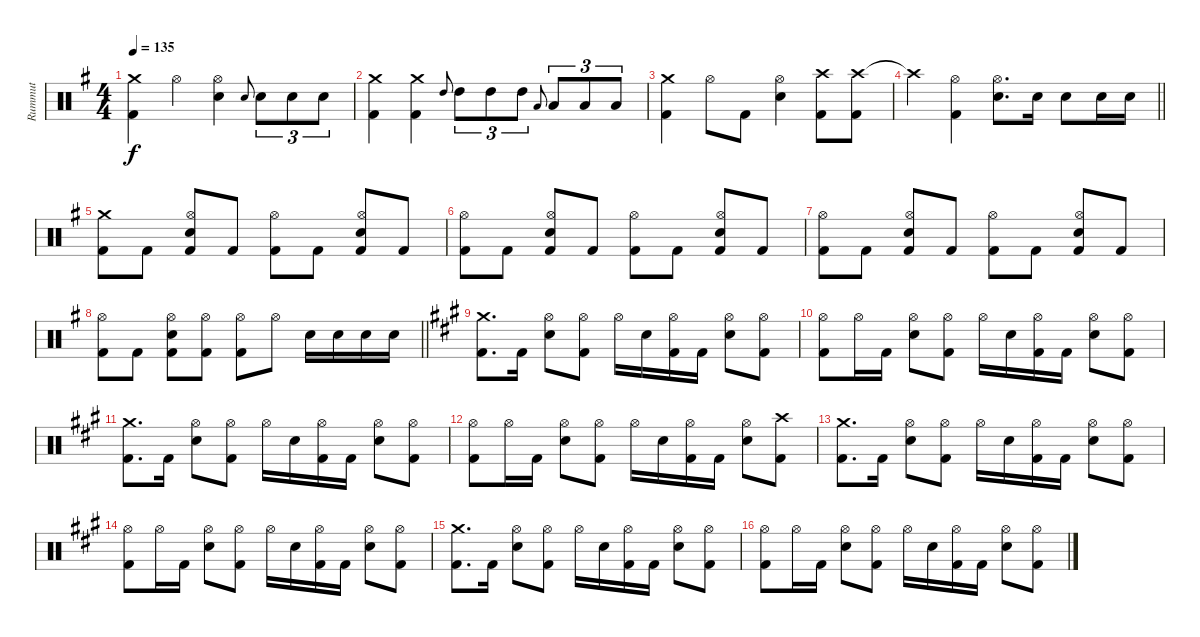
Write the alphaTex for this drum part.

\track ("Rummut" "Rummut") {instrument percussion}
\staff {score}
\articulation defaults
\ts (4 4)
\tempo 135
\clef neutral
\ks g
("Crash medium (hit)" "Kick (hit) 2").4{dy f} "Hi-Hat (open)".4 ("Hi-Hat (open)" "Snare (hit) 2").4 "Snare (hit) 2".8{gr onbeat} "Snare (hit) 2".8{tu (3 2)} "Snare (hit) 2".8{tu (3 2)} "Snare (hit) 2".8{tu (3 2)} |
("Crash medium (hit)" "Kick (hit) 2").4 ("Crash medium (hit)" "Kick (hit) 2").4 "High Tom (hit)".8{gr onbeat} "High Tom (hit)".8{tu (3 2)} "High Tom (hit)".8{tu (3 2)} "High Tom (hit)".8{tu (3 2)} "Low Tom (hit)".8{gr onbeat} "Low Tom (hit)".8{tu (3 2)} "Low Tom (hit)".8{tu (3 2)} "Low Tom (hit)".8{tu (3 2)} |
("Crash medium (hit)" "Kick (hit) 2").4 "Hi-Hat (open)".8 "Kick (hit) 2".8 ("Hi-Hat (open)" "Snare (hit) 2").4 ("Crash high (hit)" "Kick (hit) 2").8 ("Crash high (hit)" "Kick (hit) 2").8 |
\barLineRight lightlight "Crash high (hit)"{t}.4
("Hi-Hat (open)" "Kick (hit) 2").4 ("Hi-Hat (open)" "Snare (hit) 2").8{d} "Snare (hit) 2".16 "Snare (hit) 2".8 "Snare (hit) 2".16 "Snare (hit) 2".16 |
("Crash medium (hit)" "Kick (hit) 2").8 "Kick (hit) 2".8 ("Hi-Hat (open)" "Snare (hit) 2" "Kick (hit) 2").8 "Kick (hit) 2".8 ("Hi-Hat (open)" "Kick (hit) 2").8 "Kick (hit) 2".8 ("Hi-Hat (open)" "Snare (hit) 2" "Kick (hit) 2").8 "Kick (hit) 2".8 |
("Hi-Hat (open)" "Kick (hit) 2").8 "Kick (hit) 2".8 ("Hi-Hat (open)" "Snare (hit) 2" "Kick (hit) 2").8 "Kick (hit) 2".8 ("Hi-Hat (open)" "Kick (hit) 2").8 "Kick (hit) 2".8 ("Hi-Hat (open)" "Snare (hit) 2" "Kick (hit) 2").8 "Kick (hit) 2".8 |
("Hi-Hat (open)" "Kick (hit) 2").8 "Kick (hit) 2".8 ("Hi-Hat (open)" "Snare (hit) 2" "Kick (hit) 2").8 "Kick (hit) 2".8 ("Hi-Hat (open)" "Kick (hit) 2").8 "Kick (hit) 2".8 ("Hi-Hat (open)" "Snare (hit) 2" "Kick (hit) 2").8 "Kick (hit) 2".8 |
\barLineRight lightlight
("Hi-Hat (open)" "Kick (hit) 2").8 "Kick (hit) 2".8 ("Hi-Hat (open)" "Snare (hit) 2" "Kick (hit) 2").8 ("Hi-Hat (open)" "Kick (hit) 2").8 ("Hi-Hat (open)" "Kick (hit) 2").8 "Hi-Hat (open)".8 "Snare (hit) 2".16 "Snare (hit) 2".16 "Snare (hit) 2".16 "Snare (hit) 2".16 |
\ks a
("Crash medium (hit)" "Kick (hit) 2").8{d} "Kick (hit) 2".16 ("Hi-Hat (open)" "Snare (hit) 2").8 ("Hi-Hat (open)" "Kick (hit) 2").8 "Hi-Hat (open)".16 "Snare (hit) 2".16 ("Hi-Hat (open)" "Kick (hit) 2").16 "Kick (hit) 2".16 ("Hi-Hat (open)" "Snare (hit) 2").8 ("Hi-Hat (open)" "Kick (hit) 2").8 |
("Hi-Hat (open)" "Kick (hit) 2").8 "Hi-Hat (open)".16 "Kick (hit) 2".16 ("Hi-Hat (open)" "Snare (hit) 2").8 ("Hi-Hat (open)" "Kick (hit) 2").8 "Hi-Hat (open)".16 "Snare (hit) 2".16 ("Hi-Hat (open)" "Kick (hit) 2").16 "Kick (hit) 2".16 ("Hi-Hat (open)" "Snare (hit) 2").8 ("Hi-Hat (open)" "Kick (hit) 2").8 |
("Crash medium (hit)" "Kick (hit) 2").8{d} "Kick (hit) 2".16 ("Hi-Hat (open)" "Snare (hit) 2").8 ("Hi-Hat (open)" "Kick (hit) 2").8 "Hi-Hat (open)".16 "Snare (hit) 2".16 ("Hi-Hat (open)" "Kick (hit) 2").16 "Kick (hit) 2".16 ("Hi-Hat (open)" "Snare (hit) 2").8 ("Hi-Hat (open)" "Kick (hit) 2").8 |
("Hi-Hat (open)" "Kick (hit) 2").8 "Hi-Hat (open)".16 "Kick (hit) 2".16 ("Hi-Hat (open)" "Snare (hit) 2").8 ("Hi-Hat (open)" "Kick (hit) 2").8 "Hi-Hat (open)".16 "Snare (hit) 2".16 ("Hi-Hat (open)" "Kick (hit) 2").16 "Kick (hit) 2".16 ("Hi-Hat (open)" "Snare (hit) 2").8 ("Crash high (hit)" "Kick (hit) 2").8 |
("Crash medium (hit)" "Kick (hit) 2").8{d} "Kick (hit) 2".16 ("Hi-Hat (open)" "Snare (hit) 2").8 ("Hi-Hat (open)" "Kick (hit) 2").8 "Hi-Hat (open)".16 "Snare (hit) 2".16 ("Hi-Hat (open)" "Kick (hit) 2").16 "Kick (hit) 2".16 ("Hi-Hat (open)" "Snare (hit) 2").8 ("Hi-Hat (open)" "Kick (hit) 2").8 |
("Hi-Hat (open)" "Kick (hit) 2").8 "Hi-Hat (open)".16 "Kick (hit) 2".16 ("Hi-Hat (open)" "Snare (hit) 2").8 ("Hi-Hat (open)" "Kick (hit) 2").8 "Hi-Hat (open)".16 "Snare (hit) 2".16 ("Hi-Hat (open)" "Kick (hit) 2").16 "Kick (hit) 2".16 ("Hi-Hat (open)" "Snare (hit) 2").8 ("Hi-Hat (open)" "Kick (hit) 2").8 |
("Crash medium (hit)" "Kick (hit) 2").8{d} "Kick (hit) 2".16 ("Hi-Hat (open)" "Snare (hit) 2").8 ("Hi-Hat (open)" "Kick (hit) 2").8 "Hi-Hat (open)".16 "Snare (hit) 2".16 ("Hi-Hat (open)" "Kick (hit) 2").16 "Kick (hit) 2".16 ("Hi-Hat (open)" "Snare (hit) 2").8 ("Hi-Hat (open)" "Kick (hit) 2").8 |
("Hi-Hat (open)" "Kick (hit) 2").8 "Hi-Hat (open)".16 "Kick (hit) 2".16 ("Hi-Hat (open)" "Snare (hit) 2").8 ("Hi-Hat (open)" "Kick (hit) 2").8 "Hi-Hat (open)".16 "Snare (hit) 2".16 ("Hi-Hat (open)" "Kick (hit) 2").16 "Kick (hit) 2".16 ("Hi-Hat (open)" "Snare (hit) 2").8 ("Hi-Hat (open)" "Kick (hit) 2").8
